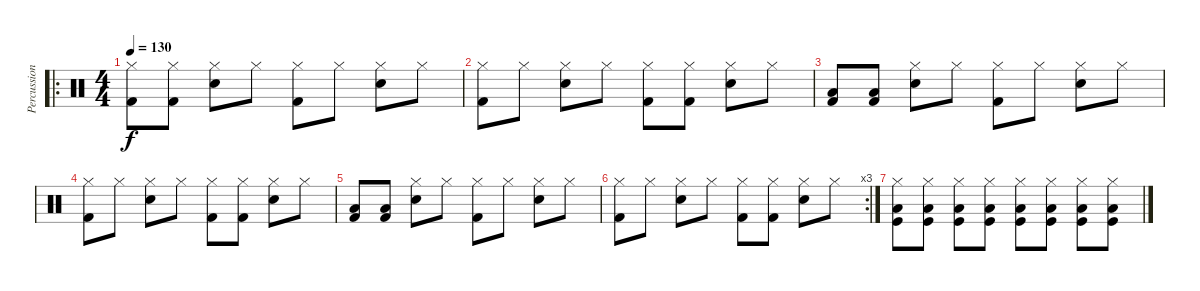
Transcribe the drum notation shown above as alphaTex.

\track ("Percussion" "Percussion") {instrument percussion}
\staff {score}
\articulation defaults
\ro
\ts (4 4)
\tempo 130
\clef neutral
\ks c
("Hi-Hat (closed)" "Kick (hit) 2").8{dy f} ("Hi-Hat (closed)" "Kick (hit) 2").8 ("Hi-Hat (closed)" "Snare (hit) 2").8 "Hi-Hat (closed)".8 ("Hi-Hat (closed)" "Kick (hit) 2").8 "Hi-Hat (closed)".8 ("Hi-Hat (closed)" "Snare (hit) 2").8 "Hi-Hat (closed)".8 |
("Hi-Hat (closed)" "Kick (hit) 2").8 "Hi-Hat (closed)".8 ("Hi-Hat (closed)" "Electric Snare (hit)").8 "Hi-Hat (closed)".8 ("Hi-Hat (closed)" "Kick (hit) 2").8 ("Hi-Hat (closed)" "Kick (hit) 2").8 ("Hi-Hat (closed)" "Electric Snare (hit)").8 "Hi-Hat (closed)".8 |
("Low Floor Tom (hit)" "Kick (hit) 2").8 ("Low Floor Tom (hit)" "Kick (hit) 2").8 ("Hi-Hat (closed)" "Snare (hit) 2").8 "Hi-Hat (closed)".8 ("Hi-Hat (closed)" "Kick (hit) 2").8 "Hi-Hat (closed)".8 ("Hi-Hat (closed)" "Snare (hit) 2").8 "Hi-Hat (closed)".8 |
("Hi-Hat (closed)" "Kick (hit) 2").8 "Hi-Hat (closed)".8 ("Hi-Hat (closed)" "Electric Snare (hit)").8 "Hi-Hat (closed)".8 ("Hi-Hat (closed)" "Kick (hit) 2").8 ("Hi-Hat (closed)" "Kick (hit) 2").8 ("Hi-Hat (closed)" "Electric Snare (hit)").8 "Hi-Hat (closed)".8 |
("Low Floor Tom (hit)" "Kick (hit) 2").8 ("Low Floor Tom (hit)" "Kick (hit) 2").8 ("Hi-Hat (closed)" "Snare (hit) 2").8 "Hi-Hat (closed)".8 ("Hi-Hat (closed)" "Kick (hit) 2").8 "Hi-Hat (closed)".8 ("Hi-Hat (closed)" "Snare (hit) 2").8 "Hi-Hat (closed)".8 |
\rc 3
("Hi-Hat (closed)" "Kick (hit) 2").8 "Hi-Hat (closed)".8 ("Hi-Hat (closed)" "Electric Snare (hit)").8 "Hi-Hat (closed)".8 ("Hi-Hat (closed)" "Kick (hit) 2").8 ("Hi-Hat (closed)" "Kick (hit) 2").8 ("Hi-Hat (closed)" "Electric Snare (hit)").8 "Hi-Hat (closed)".8 |
("Low Floor Tom (hit)" "Hi-Hat (closed)" "Kick (hit)").8 ("Low Floor Tom (hit)" "Hi-Hat (closed)" "Kick (hit)").8 ("Low Floor Tom (hit)" "Hi-Hat (closed)" "Kick (hit)").8 ("Low Floor Tom (hit)" "Hi-Hat (closed)" "Kick (hit)").8 ("Low Floor Tom (hit)" "Hi-Hat (closed)" "Kick (hit)").8 ("Low Floor Tom (hit)" "Hi-Hat (closed)" "Kick (hit)").8 ("Low Floor Tom (hit)" "Hi-Hat (closed)" "Kick (hit)").8 ("Low Floor Tom (hit)" "Hi-Hat (closed)" "Kick (hit)").8
